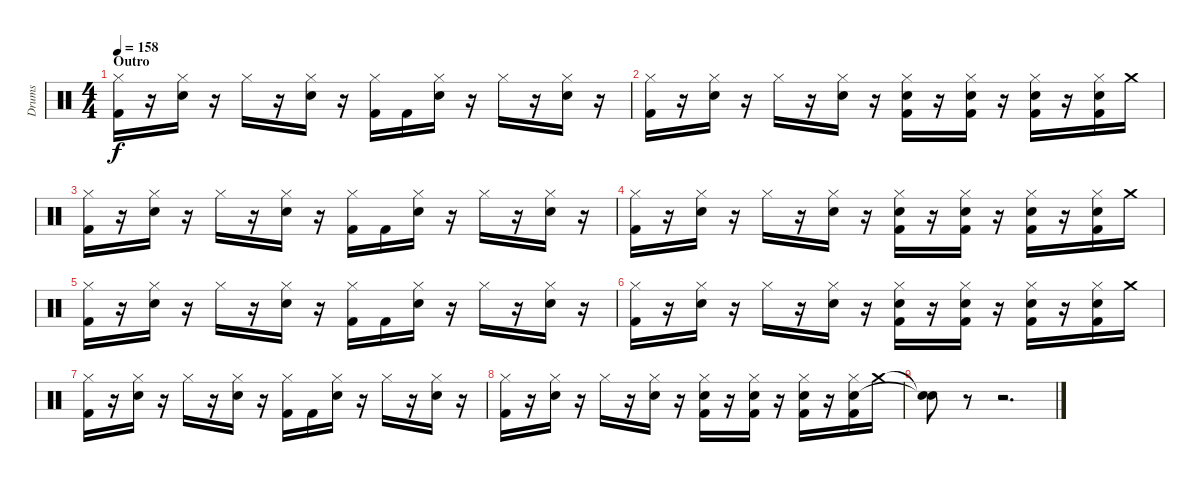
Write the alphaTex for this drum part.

\track ("Drums" "Drums") {instrument percussion}
\staff {score}
\articulation defaults
\ts (4 4)
\section ("" "Outro")
\tempo 158
\clef neutral
\ks c
("Hi-Hat (closed)" "Kick (hit) 2").16{dy f} r.16 ("Hi-Hat (closed)" "Electric Snare (hit)").16 r.16 "Hi-Hat (closed)".16 r.16 ("Hi-Hat (closed)" "Electric Snare (hit)").16 r.16 ("Hi-Hat (closed)" "Kick (hit) 2").16 "Kick (hit) 2".16 ("Hi-Hat (closed)" "Electric Snare (hit)").16 r.16 "Hi-Hat (closed)".16 r.16 ("Hi-Hat (closed)" "Electric Snare (hit)").16 r.16 |
("Hi-Hat (closed)" "Kick (hit) 2").16 r.16 ("Hi-Hat (closed)" "Electric Snare (hit)").16 r.16 "Hi-Hat (closed)".16 r.16 ("Hi-Hat (closed)" "Electric Snare (hit)").16 r.16 ("Hi-Hat (closed)" "Electric Snare (hit)" "Kick (hit) 2").16 r.16 ("Hi-Hat (closed)" "Electric Snare (hit)" "Kick (hit) 2").16 r.16 ("Hi-Hat (closed)" "Electric Snare (hit)" "Kick (hit) 2").16 r.16 ("Hi-Hat (closed)" "Electric Snare (hit)" "Kick (hit) 2").16 "Crash medium (hit)".16 |
("Hi-Hat (closed)" "Kick (hit) 2").16 r.16 ("Hi-Hat (closed)" "Electric Snare (hit)").16 r.16 "Hi-Hat (closed)".16 r.16 ("Hi-Hat (closed)" "Electric Snare (hit)").16 r.16 ("Hi-Hat (closed)" "Kick (hit) 2").16 "Kick (hit) 2".16 ("Hi-Hat (closed)" "Electric Snare (hit)").16 r.16 "Hi-Hat (closed)".16 r.16 ("Hi-Hat (closed)" "Electric Snare (hit)").16 r.16 |
("Hi-Hat (closed)" "Kick (hit) 2").16 r.16 ("Hi-Hat (closed)" "Electric Snare (hit)").16 r.16 "Hi-Hat (closed)".16 r.16 ("Hi-Hat (closed)" "Electric Snare (hit)").16 r.16 ("Hi-Hat (closed)" "Electric Snare (hit)" "Kick (hit) 2").16 r.16 ("Hi-Hat (closed)" "Electric Snare (hit)" "Kick (hit) 2").16 r.16 ("Hi-Hat (closed)" "Electric Snare (hit)" "Kick (hit) 2").16 r.16 ("Hi-Hat (closed)" "Electric Snare (hit)" "Kick (hit) 2").16 "Crash medium (hit)".16 |
("Hi-Hat (closed)" "Kick (hit) 2").16 r.16 ("Hi-Hat (closed)" "Electric Snare (hit)").16 r.16 "Hi-Hat (closed)".16 r.16 ("Hi-Hat (closed)" "Electric Snare (hit)").16 r.16 ("Hi-Hat (closed)" "Kick (hit) 2").16 "Kick (hit) 2".16 ("Hi-Hat (closed)" "Electric Snare (hit)").16 r.16 "Hi-Hat (closed)".16 r.16 ("Hi-Hat (closed)" "Electric Snare (hit)").16 r.16 |
("Hi-Hat (closed)" "Kick (hit) 2").16 r.16 ("Hi-Hat (closed)" "Electric Snare (hit)").16 r.16 "Hi-Hat (closed)".16 r.16 ("Hi-Hat (closed)" "Electric Snare (hit)").16 r.16 ("Hi-Hat (closed)" "Electric Snare (hit)" "Kick (hit) 2").16 r.16 ("Hi-Hat (closed)" "Electric Snare (hit)" "Kick (hit) 2").16 r.16 ("Hi-Hat (closed)" "Electric Snare (hit)" "Kick (hit) 2").16 r.16 ("Hi-Hat (closed)" "Electric Snare (hit)" "Kick (hit) 2").16 "Crash medium (hit)".16 |
("Hi-Hat (closed)" "Kick (hit) 2").16 r.16 ("Hi-Hat (closed)" "Electric Snare (hit)").16 r.16 "Hi-Hat (closed)".16 r.16 ("Hi-Hat (closed)" "Electric Snare (hit)").16 r.16 ("Hi-Hat (closed)" "Kick (hit) 2").16 "Kick (hit) 2".16 ("Hi-Hat (closed)" "Electric Snare (hit)").16 r.16 "Hi-Hat (closed)".16 r.16 ("Hi-Hat (closed)" "Electric Snare (hit)").16 r.16 |
("Hi-Hat (closed)" "Kick (hit) 2").16 r.16 ("Hi-Hat (closed)" "Electric Snare (hit)").16 r.16 "Hi-Hat (closed)".16 r.16 ("Hi-Hat (closed)" "Electric Snare (hit)").16 r.16 ("Hi-Hat (closed)" "Electric Snare (hit)" "Kick (hit) 2").16 r.16 ("Hi-Hat (closed)" "Electric Snare (hit)" "Kick (hit) 2").16 r.16 ("Hi-Hat (closed)" "Electric Snare (hit)" "Kick (hit) 2").16 r.16 ("Hi-Hat (closed)" "Electric Snare (hit)" "Kick (hit) 2").16 "Crash medium (hit)".16 |
("Snare (hit)"{t} "Snare (hit)"{t}).8 r.8 r.2{d}
